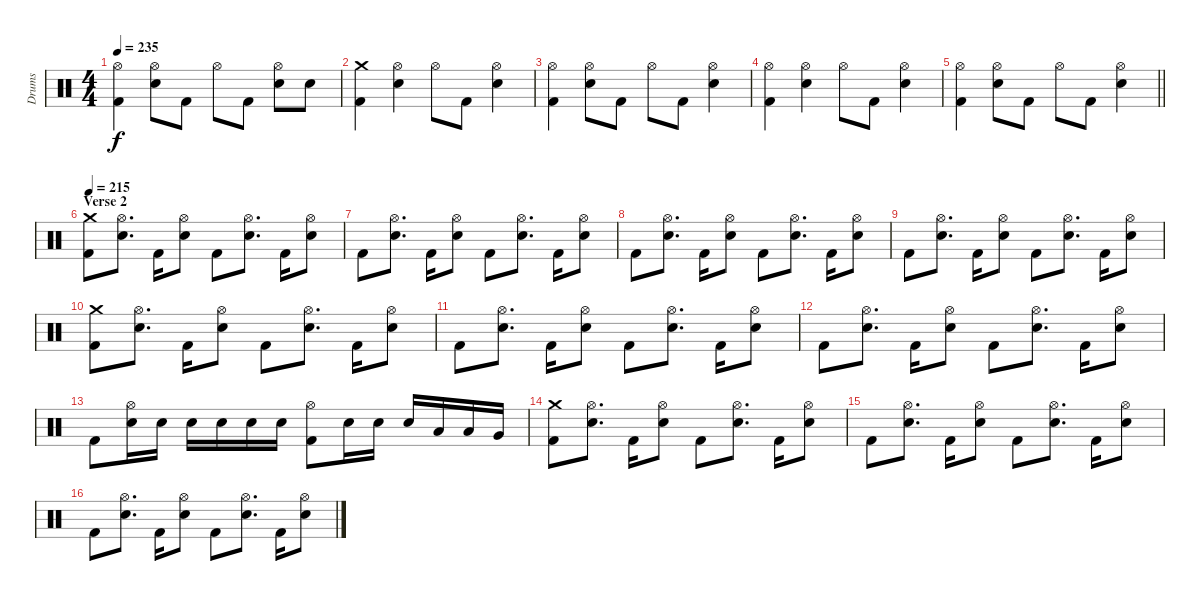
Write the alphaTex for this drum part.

\track ("Drums" "Drums") {instrument percussion}
\staff {score}
\articulation defaults
\ts (4 4)
\tempo 235
\clef neutral
\ks c
("Hi-Hat (open)" "Kick (hit) 2").4{dy f} ("Hi-Hat (open)" "Electric Snare (hit)").8 "Kick (hit) 2".8 "Hi-Hat (open)".8 "Kick (hit) 2".8 ("Hi-Hat (open)" "Electric Snare (hit)").8 "Electric Snare (hit)".8 |
("Crash medium (hit)" "Kick (hit) 2").4 ("Hi-Hat (open)" "Electric Snare (hit)").4 "Hi-Hat (open)".8 "Kick (hit) 2".8 ("Hi-Hat (open)" "Electric Snare (hit)").4 |
("Hi-Hat (open)" "Kick (hit) 2").4 ("Hi-Hat (open)" "Electric Snare (hit)").8 "Kick (hit) 2".8 "Hi-Hat (open)".8 "Kick (hit) 2".8 ("Hi-Hat (open)" "Electric Snare (hit)").4 |
("Hi-Hat (open)" "Kick (hit) 2").4 ("Hi-Hat (open)" "Electric Snare (hit)").4 "Hi-Hat (open)".8 "Kick (hit) 2".8 ("Hi-Hat (open)" "Electric Snare (hit)").4 |
\barLineRight lightlight
("Hi-Hat (open)" "Kick (hit) 2").4 ("Hi-Hat (open)" "Electric Snare (hit)").8 "Kick (hit) 2".8 "Hi-Hat (open)".8 "Kick (hit) 2".8 ("Hi-Hat (open)" "Electric Snare (hit)").4 |
\section ("" "Verse 2")
\tempo 215
("Crash medium (hit)" "Kick (hit) 2").8 ("Hi-Hat (open)" "Electric Snare (hit)").8{d} "Kick (hit) 2".16 ("Hi-Hat (open)" "Electric Snare (hit)").8 "Kick (hit) 2".8 ("Hi-Hat (open)" "Electric Snare (hit)").8{d} "Kick (hit) 2".16 ("Hi-Hat (open)" "Electric Snare (hit)").8 |
"Kick (hit) 2".8 ("Hi-Hat (open)" "Electric Snare (hit)").8{d} "Kick (hit) 2".16 ("Hi-Hat (open)" "Electric Snare (hit)").8 "Kick (hit) 2".8 ("Hi-Hat (open)" "Electric Snare (hit)").8{d} "Kick (hit) 2".16 ("Hi-Hat (open)" "Electric Snare (hit)").8 |
"Kick (hit) 2".8 ("Hi-Hat (open)" "Electric Snare (hit)").8{d} "Kick (hit) 2".16 ("Hi-Hat (open)" "Electric Snare (hit)").8 "Kick (hit) 2".8 ("Hi-Hat (open)" "Electric Snare (hit)").8{d} "Kick (hit) 2".16 ("Hi-Hat (open)" "Electric Snare (hit)").8 |
"Kick (hit) 2".8 ("Hi-Hat (open)" "Electric Snare (hit)").8{d} "Kick (hit) 2".16 ("Hi-Hat (open)" "Electric Snare (hit)").8 "Kick (hit) 2".8 ("Hi-Hat (open)" "Electric Snare (hit)").8{d} "Kick (hit) 2".16 ("Hi-Hat (open)" "Electric Snare (hit)").8 |
("Crash medium (hit)" "Kick (hit) 2").8 ("Hi-Hat (open)" "Electric Snare (hit)").8{d} "Kick (hit) 2".16 ("Hi-Hat (open)" "Electric Snare (hit)").8 "Kick (hit) 2".8 ("Hi-Hat (open)" "Electric Snare (hit)").8{d} "Kick (hit) 2".16 ("Hi-Hat (open)" "Electric Snare (hit)").8 |
"Kick (hit) 2".8 ("Hi-Hat (open)" "Electric Snare (hit)").8{d} "Kick (hit) 2".16 ("Hi-Hat (open)" "Electric Snare (hit)").8 "Kick (hit) 2".8 ("Hi-Hat (open)" "Electric Snare (hit)").8{d} "Kick (hit) 2".16 ("Hi-Hat (open)" "Electric Snare (hit)").8 |
"Kick (hit) 2".8 ("Hi-Hat (open)" "Electric Snare (hit)").8{d} "Kick (hit) 2".16 ("Hi-Hat (open)" "Electric Snare (hit)").8 "Kick (hit) 2".8 ("Hi-Hat (open)" "Electric Snare (hit)").8{d} "Kick (hit) 2".16 ("Hi-Hat (open)" "Electric Snare (hit)").8 |
"Kick (hit) 2".8 ("Hi-Hat (open)" "Electric Snare (hit)").16 "Electric Snare (hit)".16 "Electric Snare (hit)".16 "Electric Snare (hit)".16 "Electric Snare (hit)".16 "Electric Snare (hit)".16 ("Hi-Hat (open)" "Kick (hit) 2").8 "Electric Snare (hit)".16 "Electric Snare (hit)".16 "Electric Snare (hit)".16 "Low Tom (hit)".16 "Low Tom (hit)".16 "Very Low Tom (hit)".16 |
("Crash medium (hit)" "Kick (hit) 2").8 ("Hi-Hat (open)" "Electric Snare (hit)").8{d} "Kick (hit) 2".16 ("Hi-Hat (open)" "Electric Snare (hit)").8 "Kick (hit) 2".8 ("Hi-Hat (open)" "Electric Snare (hit)").8{d} "Kick (hit) 2".16 ("Hi-Hat (open)" "Electric Snare (hit)").8 |
"Kick (hit) 2".8 ("Hi-Hat (open)" "Electric Snare (hit)").8{d} "Kick (hit) 2".16 ("Hi-Hat (open)" "Electric Snare (hit)").8 "Kick (hit) 2".8 ("Hi-Hat (open)" "Electric Snare (hit)").8{d} "Kick (hit) 2".16 ("Hi-Hat (open)" "Electric Snare (hit)").8 |
"Kick (hit) 2".8 ("Hi-Hat (open)" "Electric Snare (hit)").8{d} "Kick (hit) 2".16 ("Hi-Hat (open)" "Electric Snare (hit)").8 "Kick (hit) 2".8 ("Hi-Hat (open)" "Electric Snare (hit)").8{d} "Kick (hit) 2".16 ("Hi-Hat (open)" "Electric Snare (hit)").8
